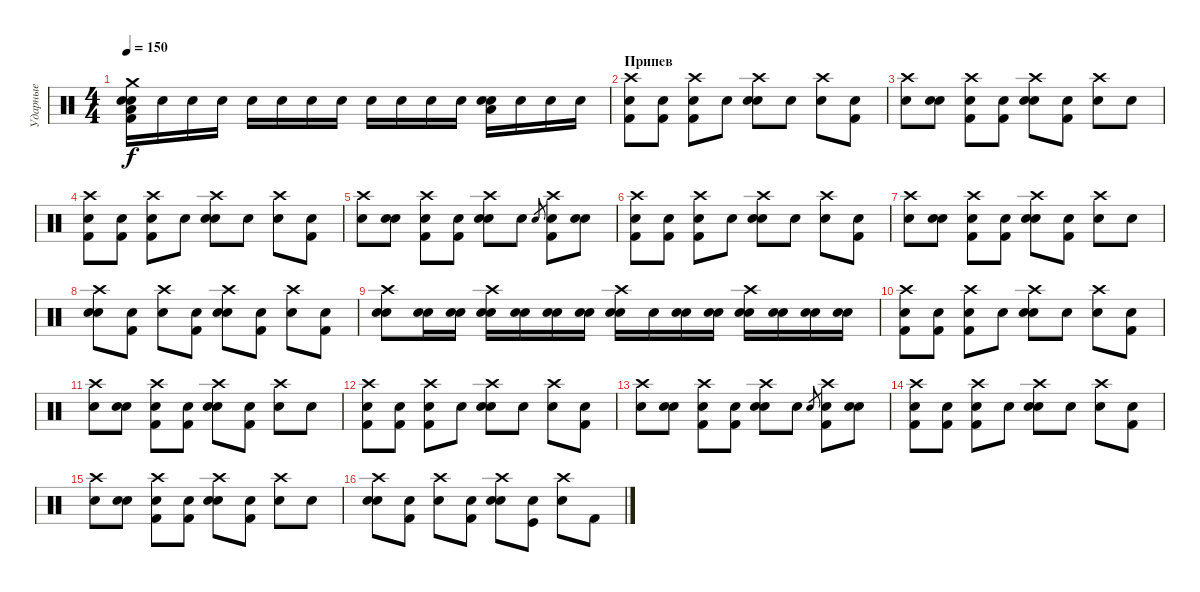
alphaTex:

\track ("Ударные" "Ударные") {instrument percussion}
\staff {score}
\articulation defaults
\ts (4 4)
\tempo 150
\clef neutral
\ks c
("Crash medium (hit)" "Low Floor Tom (hit)" "Snare (hit) 2" "Kick (hit) 2" "Snare (hit)"{x}).16{dy f} "Snare (hit)"{x}.16 "Snare (hit)"{x}.16 "Snare (hit)"{x}.16 "Snare (hit)"{x}.16 "Snare (hit)"{x}.16 "Snare (hit)"{x}.16 "Snare (hit)"{x}.16 "Snare (hit)"{x}.16 "Snare (hit)"{x}.16 "Snare (hit)"{x}.16 "Snare (hit)"{x}.16 ("Low Floor Tom (hit)" "Snare (hit) 2" "Snare (hit)"{x}).16 "Snare (hit)"{x}.16 "Snare (hit)"{x}.16 "Snare (hit)"{x}.16 |
\section ("" "Припев")
("Crash high (hit)" "Kick (hit) 2" "Snare (hit)"{x}).8 ("Kick (hit) 2" "Snare (hit)"{x}).8 ("Crash high (hit)" "Kick (hit) 2" "Snare (hit)"{x}).8 "Snare (hit)"{x}.8 ("Crash high (hit)" "Snare (hit) 2" "Snare (hit)"{x}).8 "Snare (hit)"{x}.8 ("Crash high (hit)" "Snare (hit)"{x}).8 ("Kick (hit) 2" "Snare (hit)"{x}).8 |
("Crash high (hit)" "Snare (hit)"{x}).8 ("Snare (hit) 2" "Snare (hit)"{x}).8 ("Crash high (hit)" "Kick (hit) 2" "Snare (hit)"{x}).8 ("Kick (hit) 2" "Snare (hit)"{x}).8 ("Crash high (hit)" "Snare (hit) 2" "Snare (hit)"{x}).8 ("Kick (hit) 2" "Snare (hit)"{x}).8 ("Crash high (hit)" "Snare (hit)"{x}).8 "Snare (hit)"{x}.8 |
("Crash high (hit)" "Kick (hit) 2" "Snare (hit)"{x}).8 ("Kick (hit) 2" "Snare (hit)"{x}).8 ("Crash high (hit)" "Kick (hit) 2" "Snare (hit)"{x}).8 "Snare (hit)"{x}.8 ("Crash high (hit)" "Snare (hit) 2" "Snare (hit)"{x}).8 "Snare (hit)"{x}.8 ("Crash high (hit)" "Snare (hit)"{x}).8 ("Kick (hit) 2" "Snare (hit)"{x}).8 |
("Crash high (hit)" "Snare (hit)"{x}).8 ("Snare (hit) 2" "Snare (hit)"{x}).8 ("Crash high (hit)" "Kick (hit) 2" "Snare (hit)"{x}).8 ("Kick (hit) 2" "Snare (hit)"{x}).8 ("Crash high (hit)" "Snare (hit) 2" "Snare (hit)"{x}).8 "Snare (hit)"{x}.8 "Snare (hit) 2".8{gr} ("Crash high (hit)" "Kick (hit) 2" "Snare (hit)"{x}).8 ("Snare (hit) 2" "Snare (hit)"{x}).8 |
("Crash high (hit)" "Kick (hit) 2" "Snare (hit)"{x}).8 ("Kick (hit) 2" "Snare (hit)"{x}).8 ("Crash high (hit)" "Kick (hit) 2" "Snare (hit)"{x}).8 "Snare (hit)"{x}.8 ("Crash high (hit)" "Snare (hit) 2" "Snare (hit)"{x}).8 "Snare (hit)"{x}.8 ("Crash high (hit)" "Snare (hit)"{x}).8 ("Kick (hit) 2" "Snare (hit)"{x}).8 |
("Crash high (hit)" "Snare (hit)"{x}).8 ("Snare (hit) 2" "Snare (hit)"{x}).8 ("Crash high (hit)" "Kick (hit) 2" "Snare (hit)"{x}).8 ("Kick (hit) 2" "Snare (hit)"{x}).8 ("Crash high (hit)" "Snare (hit) 2" "Snare (hit)"{x}).8 ("Kick (hit) 2" "Snare (hit)"{x}).8 ("Crash high (hit)" "Snare (hit)"{x}).8 "Snare (hit)"{x}.8 |
("Crash high (hit)" "Snare (hit) 2" "Snare (hit)"{x}).8 ("Kick (hit) 2" "Snare (hit)"{x}).8 ("Crash high (hit)" "Snare (hit)"{x}).8 ("Kick (hit) 2" "Snare (hit)"{x}).8 ("Crash high (hit)" "Snare (hit) 2" "Snare (hit)"{x}).8 ("Kick (hit) 2" "Snare (hit)"{x}).8 ("Crash high (hit)" "Snare (hit)"{x}).8 ("Kick (hit) 2" "Snare (hit)"{x}).8 |
("Crash high (hit)" "Snare (hit) 2" "Snare (hit)"{x}).8 ("Snare (hit) 2" "Snare (hit)"{x}).16 ("Snare (hit) 2" "Snare (hit)"{x}).16 ("Crash high (hit)" "Snare (hit) 2" "Snare (hit)"{x}).16 ("Snare (hit) 2" "Snare (hit)"{x}).16 ("Snare (hit) 2" "Snare (hit)"{x}).16 ("Snare (hit) 2" "Snare (hit)"{x}).16 ("Crash high (hit)" "Snare (hit) 2" "Snare (hit)"{x}).16 "Snare (hit)"{x}.16 ("Snare (hit) 2" "Snare (hit)"{x}).16 ("Snare (hit) 2" "Snare (hit)"{x}).16 ("Crash high (hit)" "Snare (hit) 2" "Snare (hit)"{x}).16 ("Snare (hit) 2" "Snare (hit)"{x}).16 ("Snare (hit) 2" "Snare (hit)"{x}).16 ("Snare (hit) 2" "Snare (hit)"{x}).16 |
("Crash high (hit)" "Kick (hit) 2" "Snare (hit)"{x}).8 ("Kick (hit) 2" "Snare (hit)"{x}).8 ("Crash high (hit)" "Kick (hit) 2" "Snare (hit)"{x}).8 "Snare (hit)"{x}.8 ("Crash high (hit)" "Snare (hit) 2" "Snare (hit)"{x}).8 "Snare (hit)"{x}.8 ("Crash high (hit)" "Snare (hit)"{x}).8 ("Kick (hit) 2" "Snare (hit)"{x}).8 |
("Crash high (hit)" "Snare (hit)"{x}).8 ("Snare (hit) 2" "Snare (hit)"{x}).8 ("Crash high (hit)" "Kick (hit) 2" "Snare (hit)"{x}).8 ("Kick (hit) 2" "Snare (hit)"{x}).8 ("Crash high (hit)" "Snare (hit) 2" "Snare (hit)"{x}).8 ("Kick (hit) 2" "Snare (hit)"{x}).8 ("Crash high (hit)" "Snare (hit)"{x}).8 "Snare (hit)"{x}.8 |
("Crash high (hit)" "Kick (hit) 2" "Snare (hit)"{x}).8 ("Kick (hit) 2" "Snare (hit)"{x}).8 ("Crash high (hit)" "Kick (hit) 2" "Snare (hit)"{x}).8 "Snare (hit)"{x}.8 ("Crash high (hit)" "Snare (hit) 2" "Snare (hit)"{x}).8 "Snare (hit)"{x}.8 ("Crash high (hit)" "Snare (hit)"{x}).8 ("Kick (hit) 2" "Snare (hit)"{x}).8 |
("Crash high (hit)" "Snare (hit)"{x}).8 ("Snare (hit) 2" "Snare (hit)"{x}).8 ("Crash high (hit)" "Kick (hit) 2" "Snare (hit)"{x}).8 ("Kick (hit) 2" "Snare (hit)"{x}).8 ("Crash high (hit)" "Snare (hit) 2" "Snare (hit)"{x}).8 "Snare (hit)"{x}.8 "Snare (hit) 2".8{gr} ("Crash high (hit)" "Kick (hit) 2" "Snare (hit)"{x}).8 ("Snare (hit) 2" "Snare (hit)"{x}).8 |
("Crash high (hit)" "Kick (hit) 2" "Snare (hit)"{x}).8 ("Kick (hit) 2" "Snare (hit)"{x}).8 ("Crash high (hit)" "Kick (hit) 2" "Snare (hit)"{x}).8 "Snare (hit)"{x}.8 ("Crash high (hit)" "Snare (hit) 2" "Snare (hit)"{x}).8 "Snare (hit)"{x}.8 ("Crash high (hit)" "Snare (hit)"{x}).8 ("Kick (hit) 2" "Snare (hit)"{x}).8 |
("Crash high (hit)" "Snare (hit)"{x}).8 ("Snare (hit) 2" "Snare (hit)"{x}).8 ("Crash high (hit)" "Kick (hit) 2" "Snare (hit)"{x}).8 ("Kick (hit) 2" "Snare (hit)"{x}).8 ("Crash high (hit)" "Snare (hit) 2" "Snare (hit)"{x}).8 ("Kick (hit) 2" "Snare (hit)"{x}).8 ("Crash high (hit)" "Snare (hit)"{x}).8 "Snare (hit)"{x}.8 |
("Crash high (hit)" "Snare (hit) 2" "Snare (hit)"{x}).8 ("Kick (hit) 2" "Snare (hit)"{x}).8 ("Crash high (hit)" "Snare (hit)"{x}).8 ("Kick (hit) 2" "Snare (hit)"{x}).8 ("Crash high (hit)" "Snare (hit) 2" "Snare (hit)"{x}).8 ("Kick (hit)" "Snare (hit)"{x}).8 ("Crash high (hit)" "Snare (hit)"{x}).8 "Kick (hit) 2".8
